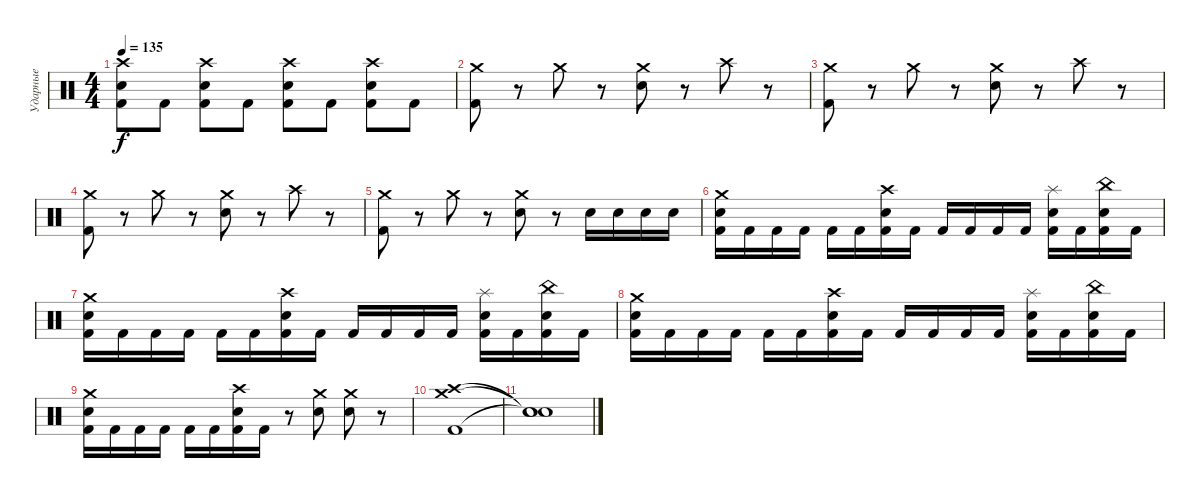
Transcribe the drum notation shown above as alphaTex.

\track ("Ударные" "Ударные") {instrument percussion}
\staff {score}
\articulation defaults
\ts (4 4)
\tempo 135
\clef neutral
\ks c
("Crash high (hit)" "Electric Snare (hit)" "Kick (hit) 2").8{dy f} "Kick (hit) 2".8 ("Crash high (hit)" "Electric Snare (hit)" "Kick (hit) 2").8 "Kick (hit) 2".8 ("Crash high (hit)" "Electric Snare (hit)" "Kick (hit) 2").8 "Kick (hit) 2".8 ("Crash high (hit)" "Electric Snare (hit)" "Kick (hit) 2").8 "Kick (hit) 2".8 |
("Crash medium (hit)" "Kick (hit) 2").8 r.8 "Crash medium (hit)".8 r.8 ("Crash medium (hit)" "Electric Snare (hit)").8 r.8 "Crash high (hit)".8 r.8 |
("Crash medium (hit)" "Kick (hit) 2").8 r.8 "Crash medium (hit)".8 r.8 ("Crash medium (hit)" "Electric Snare (hit)").8 r.8 "Crash high (hit)".8 r.8 |
("Crash medium (hit)" "Kick (hit) 2").8 r.8 "Crash medium (hit)".8 r.8 ("Crash medium (hit)" "Electric Snare (hit)").8 r.8 "Crash high (hit)".8 r.8 |
("Crash medium (hit)" "Kick (hit) 2").8 r.8 "Crash medium (hit)".8 r.8 ("Crash medium (hit)" "Electric Snare (hit)").8 r.8 "Electric Snare (hit)".16 "Electric Snare (hit)".16 "Electric Snare (hit)".16 "Electric Snare (hit)".16 |
("Crash medium (hit)" "Electric Snare (hit)" "Kick (hit) 2").16 "Kick (hit) 2".16 "Kick (hit) 2".16 "Kick (hit) 2".16 "Kick (hit) 2".16 "Kick (hit) 2".16 ("Crash high (hit)" "Electric Snare (hit)" "Kick (hit) 2").16 "Kick (hit) 2".16 "Kick (hit) 2".16 "Kick (hit) 2".16 "Kick (hit) 2".16 "Kick (hit) 2".16 ("Splash (hit)" "Electric Snare (hit)" "Kick (hit) 2").16 "Kick (hit) 2".16 ("China (hit)" "Electric Snare (hit)" "Kick (hit) 2").16 "Kick (hit) 2".16 |
("Crash medium (hit)" "Electric Snare (hit)" "Kick (hit) 2").16 "Kick (hit) 2".16 "Kick (hit) 2".16 "Kick (hit) 2".16 "Kick (hit) 2".16 "Kick (hit) 2".16 ("Crash high (hit)" "Electric Snare (hit)" "Kick (hit) 2").16 "Kick (hit) 2".16 "Kick (hit) 2".16 "Kick (hit) 2".16 "Kick (hit) 2".16 "Kick (hit) 2".16 ("Splash (hit)" "Electric Snare (hit)" "Kick (hit) 2").16 "Kick (hit) 2".16 ("China (hit)" "Electric Snare (hit)" "Kick (hit) 2").16 "Kick (hit) 2".16 |
("Crash medium (hit)" "Electric Snare (hit)" "Kick (hit) 2").16 "Kick (hit) 2".16 "Kick (hit) 2".16 "Kick (hit) 2".16 "Kick (hit) 2".16 "Kick (hit) 2".16 ("Crash high (hit)" "Electric Snare (hit)" "Kick (hit) 2").16 "Kick (hit) 2".16 "Kick (hit) 2".16 "Kick (hit) 2".16 "Kick (hit) 2".16 "Kick (hit) 2".16 ("Splash (hit)" "Electric Snare (hit)" "Kick (hit) 2").16 "Kick (hit) 2".16 ("China (hit)" "Electric Snare (hit)" "Kick (hit) 2").16 "Kick (hit) 2".16 |
("Crash medium (hit)" "Electric Snare (hit)" "Kick (hit) 2").16 "Kick (hit) 2".16 "Kick (hit) 2".16 "Kick (hit) 2".16 "Kick (hit) 2".16 "Kick (hit) 2".16 ("Crash high (hit)" "Electric Snare (hit)" "Kick (hit) 2").16 "Kick (hit) 2".16 r.8 ("Crash medium (hit)" "Electric Snare (hit)").8 ("Crash medium (hit)" "Electric Snare (hit)").8 r.8 |
("Crash medium (hit)" "Crash high (hit)" "Kick (hit) 2").1 |
("Snare (hit)"{t} "Snare (hit)"{t} "Snare (hit)"{t}).1
